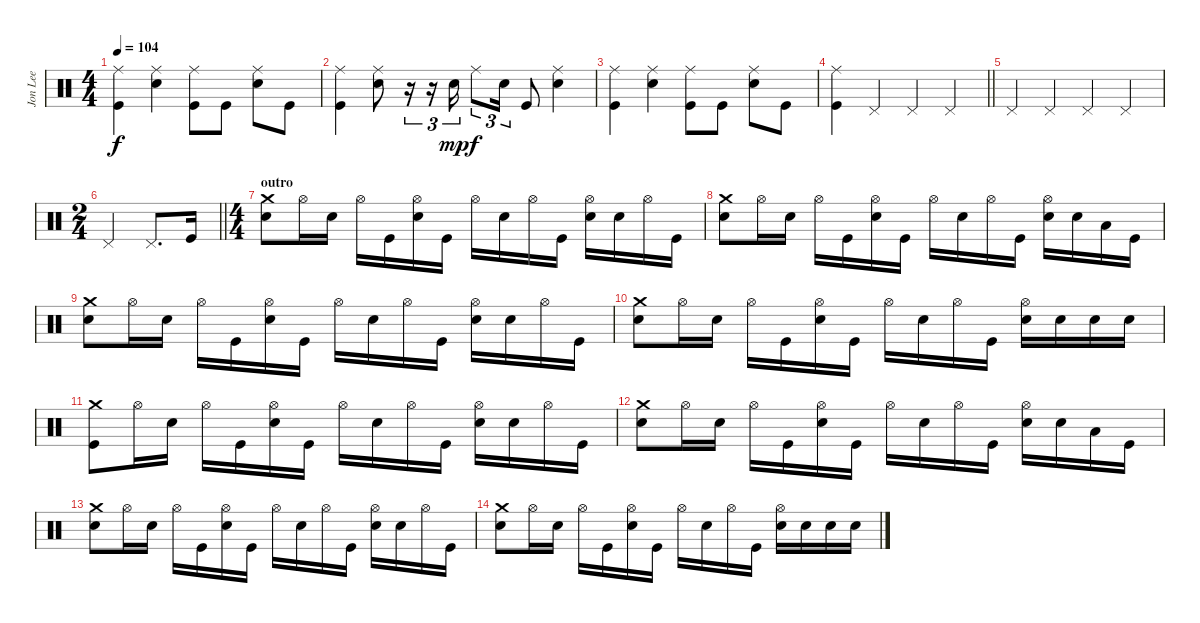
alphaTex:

\track ("Jon Lee" "Jon Lee") {instrument percussion}
\staff {score}
\articulation defaults
\ts (4 4)
\tempo 104
\clef neutral
\ks c
("Ride (middle)" "Kick (hit)").4{dy f} ("Ride (middle)" "Electric Snare (hit)").4 ("Ride (middle)" "Kick (hit)").8 "Kick (hit)".8 ("Ride (middle)" "Electric Snare (hit)").8 "Kick (hit)".8 |
("Ride (middle)" "Kick (hit)").4 ("Ride (middle)" "Electric Snare (hit)").8 r.16{tu (3 2)} r.16{tu (3 2)} "Electric Snare (hit)".16{tu (3 2) dy mp} "Ride (middle)".8{tu (3 2) dy f} "Electric Snare (hit)".16{tu (3 2)} "Kick (hit)".8 ("Ride (middle)" "Electric Snare (hit)").4 |
("Ride (middle)" "Kick (hit)").4 ("Ride (middle)" "Electric Snare (hit)").4 ("Ride (middle)" "Kick (hit)").8 "Kick (hit)".8 ("Ride (middle)" "Electric Snare (hit)").8 "Kick (hit)".8 |
\barLineRight lightlight
("Ride (middle)" "Kick (hit)").4 "Pedal Hi-Hat (hit)".4 "Pedal Hi-Hat (hit)".4 "Pedal Hi-Hat (hit)".4 |
"Pedal Hi-Hat (hit)".4 "Pedal Hi-Hat (hit)".4 "Pedal Hi-Hat (hit)".4 "Pedal Hi-Hat (hit)".4 |
\ts (2 4)
\barLineRight lightlight "Pedal Hi-Hat (hit)".4 "Pedal Hi-Hat (hit)".8{d} "Kick (hit)".16
|
\ts (4 4)
\section ("" "outro")
("Crash medium (hit)" "Electric Snare (hit)").8 "Hi-Hat (open)".16 "Electric Snare (hit)".16 "Hi-Hat (open)".16 "Kick (hit)".16 ("Hi-Hat (open)" "Electric Snare (hit)").16 "Kick (hit)".16 "Hi-Hat (open)".16 "Electric Snare (hit)".16 "Hi-Hat (open)".16 "Kick (hit)".16 ("Hi-Hat (open)" "Electric Snare (hit)").16 "Electric Snare (hit)".16 "Hi-Hat (open)".16 "Kick (hit)".16 |
("Crash medium (hit)" "Electric Snare (hit)").8 "Hi-Hat (open)".16 "Electric Snare (hit)".16 "Hi-Hat (open)".16 "Kick (hit)".16 ("Hi-Hat (open)" "Electric Snare (hit)").16 "Kick (hit)".16 "Hi-Hat (open)".16 "Electric Snare (hit)".16 "Hi-Hat (open)".16 "Kick (hit)".16 ("Hi-Hat (open)" "Electric Snare (hit)").16 "Electric Snare (hit)".16 "Low Tom (hit)".16 "Kick (hit)".16 |
("Crash medium (hit)" "Electric Snare (hit)").8 "Hi-Hat (open)".16 "Electric Snare (hit)".16 "Hi-Hat (open)".16 "Kick (hit)".16 ("Hi-Hat (open)" "Electric Snare (hit)").16 "Kick (hit)".16 "Hi-Hat (open)".16 "Electric Snare (hit)".16 "Hi-Hat (open)".16 "Kick (hit)".16 ("Hi-Hat (open)" "Electric Snare (hit)").16 "Electric Snare (hit)".16 "Hi-Hat (open)".16 "Kick (hit)".16 |
("Crash medium (hit)" "Electric Snare (hit)").8 "Hi-Hat (open)".16 "Electric Snare (hit)".16 "Hi-Hat (open)".16 "Kick (hit)".16 ("Hi-Hat (open)" "Electric Snare (hit)").16 "Kick (hit)".16 "Hi-Hat (open)".16 "Electric Snare (hit)".16 "Hi-Hat (open)".16 "Kick (hit)".16 ("Hi-Hat (open)" "Electric Snare (hit)").16 "Electric Snare (hit)".16 "Electric Snare (hit)".16 "Electric Snare (hit)".16 |
("Crash medium (hit)" "Kick (hit)").8 "Hi-Hat (open)".16 "Electric Snare (hit)".16 "Hi-Hat (open)".16 "Kick (hit)".16 ("Hi-Hat (open)" "Electric Snare (hit)").16 "Kick (hit)".16 "Hi-Hat (open)".16 "Electric Snare (hit)".16 "Hi-Hat (open)".16 "Kick (hit)".16 ("Hi-Hat (open)" "Electric Snare (hit)").16 "Electric Snare (hit)".16 "Hi-Hat (open)".16 "Kick (hit)".16 |
("Crash medium (hit)" "Electric Snare (hit)").8 "Hi-Hat (open)".16 "Electric Snare (hit)".16 "Hi-Hat (open)".16 "Kick (hit)".16 ("Hi-Hat (open)" "Electric Snare (hit)").16 "Kick (hit)".16 "Hi-Hat (open)".16 "Electric Snare (hit)".16 "Hi-Hat (open)".16 "Kick (hit)".16 ("Hi-Hat (open)" "Electric Snare (hit)").16 "Electric Snare (hit)".16 "Low Tom (hit)".16 "Kick (hit)".16 |
("Crash medium (hit)" "Electric Snare (hit)").8 "Hi-Hat (open)".16 "Electric Snare (hit)".16 "Hi-Hat (open)".16 "Kick (hit)".16 ("Hi-Hat (open)" "Electric Snare (hit)").16 "Kick (hit)".16 "Hi-Hat (open)".16 "Electric Snare (hit)".16 "Hi-Hat (open)".16 "Kick (hit)".16 ("Hi-Hat (open)" "Electric Snare (hit)").16 "Electric Snare (hit)".16 "Hi-Hat (open)".16 "Kick (hit)".16 |
("Crash medium (hit)" "Electric Snare (hit)").8 "Hi-Hat (open)".16 "Electric Snare (hit)".16 "Hi-Hat (open)".16 "Kick (hit)".16 ("Hi-Hat (open)" "Electric Snare (hit)").16 "Kick (hit)".16 "Hi-Hat (open)".16 "Electric Snare (hit)".16 "Hi-Hat (open)".16 "Kick (hit)".16 ("Hi-Hat (open)" "Electric Snare (hit)").16 "Electric Snare (hit)".16 "Electric Snare (hit)".16 "Electric Snare (hit)".16
